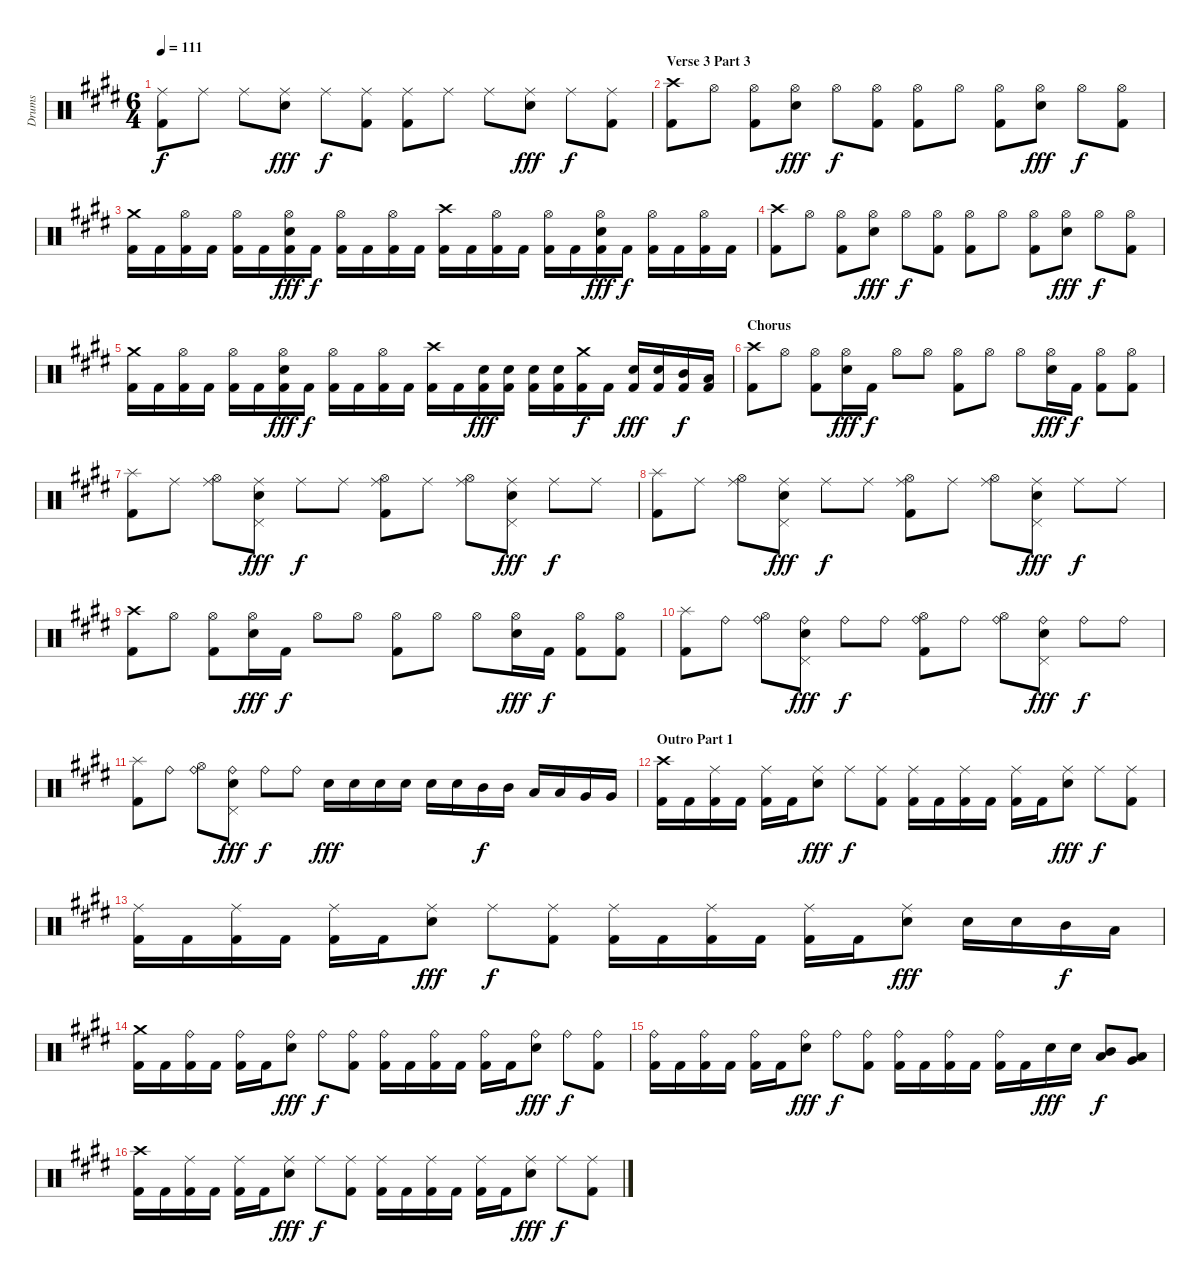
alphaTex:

\track ("Drums" "Drums") {instrument percussion}
\staff {score}
\articulation defaults
\ts (6 4)
\tempo 111
\clef neutral
\ks c#minor
("Ride (middle)" "Kick (hit) 2").8{dy f} "Ride (middle)".8 "Ride (middle)".8 ("Ride (middle)" "Snare (hit) 2").8{dy fff} "Ride (middle)".8{dy f} ("Ride (middle)" "Kick (hit) 2").8 ("Ride (middle)" "Kick (hit) 2").8 "Ride (middle)".8 "Ride (middle)".8 ("Ride (middle)" "Snare (hit) 2").8{dy fff} "Ride (middle)".8{dy f} ("Ride (middle)" "Kick (hit) 2").8 |
\section ("" "Verse 3 Part 3")
("Crash high (hit)" "Kick (hit) 2").8 "Hi-Hat (open)".8 ("Hi-Hat (open)" "Kick (hit) 2").8 ("Hi-Hat (open)" "Snare (hit) 2").8{dy fff} "Hi-Hat (open)".8{dy f} ("Hi-Hat (open)" "Kick (hit) 2").8 ("Hi-Hat (open)" "Kick (hit) 2").8 "Hi-Hat (open)".8 ("Hi-Hat (open)" "Kick (hit) 2").8 ("Hi-Hat (open)" "Snare (hit) 2").8{dy fff} "Hi-Hat (open)".8{dy f} ("Hi-Hat (open)" "Kick (hit) 2").8 |
("Crash medium (hit)" "Kick (hit) 2").16 "Kick (hit) 2".16 ("Hi-Hat (open)" "Kick (hit) 2").16 "Kick (hit) 2".16 ("Hi-Hat (open)" "Kick (hit) 2").16 "Kick (hit) 2".16 ("Hi-Hat (open)" "Snare (hit) 2" "Kick (hit) 2").16{dy fff} "Kick (hit) 2".16{dy f} ("Hi-Hat (open)" "Kick (hit) 2").16 "Kick (hit) 2".16 ("Hi-Hat (open)" "Kick (hit) 2").16 "Kick (hit) 2".16 ("Crash high (hit)" "Kick (hit) 2").16 "Kick (hit) 2".16 ("Hi-Hat (open)" "Kick (hit) 2").16 "Kick (hit) 2".16 ("Hi-Hat (open)" "Kick (hit) 2").16 "Kick (hit) 2".16 ("Hi-Hat (open)" "Snare (hit) 2" "Kick (hit) 2").16{dy fff} "Kick (hit) 2".16{dy f} ("Hi-Hat (open)" "Kick (hit) 2").16 "Kick (hit) 2".16 ("Hi-Hat (open)" "Kick (hit) 2").16 "Kick (hit) 2".16 |
("Crash high (hit)" "Kick (hit) 2").8 "Hi-Hat (open)".8 ("Hi-Hat (open)" "Kick (hit) 2").8 ("Hi-Hat (open)" "Snare (hit) 2").8{dy fff} "Hi-Hat (open)".8{dy f} ("Hi-Hat (open)" "Kick (hit) 2").8 ("Hi-Hat (open)" "Kick (hit) 2").8 "Hi-Hat (open)".8 ("Hi-Hat (open)" "Kick (hit) 2").8 ("Hi-Hat (open)" "Snare (hit) 2").8{dy fff} "Hi-Hat (open)".8{dy f} ("Hi-Hat (open)" "Kick (hit) 2").8 |
("Crash medium (hit)" "Kick (hit) 2").16 "Kick (hit) 2".16 ("Hi-Hat (open)" "Kick (hit) 2").16 "Kick (hit) 2".16 ("Hi-Hat (open)" "Kick (hit) 2").16 "Kick (hit) 2".16 ("Hi-Hat (open)" "Snare (hit) 2" "Kick (hit) 2").16{dy fff} "Kick (hit) 2".16{dy f} ("Hi-Hat (open)" "Kick (hit) 2").16 "Kick (hit) 2".16 ("Hi-Hat (open)" "Kick (hit) 2").16 "Kick (hit) 2".16 ("Crash high (hit)" "Kick (hit) 2").16 "Kick (hit) 2".16 ("Snare (hit) 2" "Kick (hit) 2").16{dy fff} ("Snare (hit) 2" "Kick (hit) 2").16 ("Snare (hit) 2" "Kick (hit) 2").16 ("Snare (hit) 2" "Kick (hit) 2").16 ("Crash medium (hit)" "Kick (hit) 2").16{dy f} "Kick (hit) 2".16 ("Snare (hit) 2" "Kick (hit) 2").16{dy fff} ("Snare (hit) 2" "Kick (hit) 2").16 ("Mid Tom (hit)" "Kick (hit) 2").16{dy f} ("Low Tom (hit)" "Kick (hit) 2").16 |
\section ("" "Chorus")
("Crash high (hit)" "Kick (hit) 2").8 "Hi-Hat (open)".8 ("Hi-Hat (open)" "Kick (hit) 2").8 ("Hi-Hat (open)" "Snare (hit) 2").16{dy fff} "Kick (hit) 2".16{dy f} "Hi-Hat (open)".8 "Hi-Hat (open)".8 ("Hi-Hat (open)" "Kick (hit) 2").8 "Hi-Hat (open)".8 "Hi-Hat (open)".8 ("Hi-Hat (open)" "Snare (hit) 2").16{dy fff} "Kick (hit) 2".16{dy f} ("Hi-Hat (open)" "Kick (hit) 2").8 ("Hi-Hat (open)" "Kick (hit) 2").8 |
("Splash (hit)" "Kick (hit) 2").8 "Ride (middle)".8 ("Hi-Hat (open)" "Ride (middle)").8 ("Pedal Hi-Hat (hit)" "Ride (middle)" "Snare (hit) 2").8{dy fff} "Ride (middle)".8{dy f} "Ride (middle)".8 ("Hi-Hat (open)" "Ride (middle)" "Kick (hit) 2").8 "Ride (middle)".8 ("Hi-Hat (open)" "Ride (middle)").8 ("Pedal Hi-Hat (hit)" "Ride (middle)" "Snare (hit) 2").8{dy fff} "Ride (middle)".8{dy f} "Ride (middle)".8 |
("Splash (hit)" "Kick (hit) 2").8 "Ride (middle)".8 ("Hi-Hat (open)" "Ride (middle)").8 ("Pedal Hi-Hat (hit)" "Ride (middle)" "Snare (hit) 2").8{dy fff} "Ride (middle)".8{dy f} "Ride (middle)".8 ("Hi-Hat (open)" "Ride (middle)" "Kick (hit) 2").8 "Ride (middle)".8 ("Hi-Hat (open)" "Ride (middle)").8 ("Pedal Hi-Hat (hit)" "Ride (middle)" "Snare (hit) 2").8{dy fff} "Ride (middle)".8{dy f} "Ride (middle)".8 |
("Crash high (hit)" "Kick (hit) 2").8 "Hi-Hat (open)".8 ("Hi-Hat (open)" "Kick (hit) 2").8 ("Hi-Hat (open)" "Snare (hit) 2").16{dy fff} "Kick (hit) 2".16{dy f} "Hi-Hat (open)".8 "Hi-Hat (open)".8 ("Hi-Hat (open)" "Kick (hit) 2").8 "Hi-Hat (open)".8 "Hi-Hat (open)".8 ("Hi-Hat (open)" "Snare (hit) 2").16{dy fff} "Kick (hit) 2".16{dy f} ("Hi-Hat (open)" "Kick (hit) 2").8 ("Hi-Hat (open)" "Kick (hit) 2").8 |
("Splash (hit)" "Kick (hit) 2").8 "Ride (bell)".8 ("Hi-Hat (open)" "Ride (bell)").8 ("Pedal Hi-Hat (hit)" "Ride (bell)" "Snare (hit) 2").8{dy fff} "Ride (bell)".8{dy f} "Ride (bell)".8 ("Hi-Hat (open)" "Ride (bell)" "Kick (hit) 2").8 "Ride (bell)".8 ("Hi-Hat (open)" "Ride (bell)").8 ("Pedal Hi-Hat (hit)" "Ride (bell)" "Snare (hit) 2").8{dy fff} "Ride (bell)".8{dy f} "Ride (bell)".8 |
("Splash (hit)" "Kick (hit) 2").8 "Ride (bell)".8 ("Hi-Hat (open)" "Ride (bell)").8 ("Pedal Hi-Hat (hit)" "Ride (bell)" "Snare (hit) 2").8{dy fff} "Ride (bell)".8{dy f} "Ride (bell)".8 "Snare (hit) 2".16{dy fff} "Snare (hit) 2".16 "Snare (hit) 2".16 "Snare (hit) 2".16 "Snare (hit) 2".16 "Snare (hit) 2".16 "Mid Tom (hit)".16{dy f} "Mid Tom (hit)".16 "Low Tom (hit)".16 "Low Tom (hit)".16 "Very Low Tom (hit)".16 "Very Low Tom (hit)".16 |
\section ("" "Outro Part 1")
("Crash high (hit)" "Kick (hit) 2").16 "Kick (hit) 2".16 ("Ride (middle)" "Kick (hit) 2").16 "Kick (hit) 2".16 ("Ride (middle)" "Kick (hit) 2").16 "Kick (hit) 2".16 ("Ride (middle)" "Snare (hit) 2").8{dy fff} "Ride (middle)".8{dy f} ("Ride (middle)" "Kick (hit) 2").8 ("Ride (middle)" "Kick (hit) 2").16 "Kick (hit) 2".16 ("Ride (middle)" "Kick (hit) 2").16 "Kick (hit) 2".16 ("Ride (middle)" "Kick (hit) 2").16 "Kick (hit) 2".16 ("Ride (middle)" "Snare (hit) 2").8{dy fff} "Ride (middle)".8{dy f} ("Ride (middle)" "Kick (hit) 2").8 |
("Ride (middle)" "Kick (hit) 2").16 "Kick (hit) 2".16 ("Ride (middle)" "Kick (hit) 2").16 "Kick (hit) 2".16 ("Ride (middle)" "Kick (hit) 2").16 "Kick (hit) 2".16 ("Ride (middle)" "Snare (hit) 2").8{dy fff} "Ride (middle)".8{dy f} ("Ride (middle)" "Kick (hit) 2").8 ("Ride (middle)" "Kick (hit) 2").16 "Kick (hit) 2".16 ("Ride (middle)" "Kick (hit) 2").16 "Kick (hit) 2".16 ("Ride (middle)" "Kick (hit) 2").16 "Kick (hit) 2".16 ("Ride (middle)" "Snare (hit) 2").8{dy fff} "Snare (hit) 2".16 "Snare (hit) 2".16 "Mid Tom (hit)".16{dy f} "Low Tom (hit)".16 |
("Crash medium (hit)" "Kick (hit) 2").16 "Kick (hit) 2".16 ("Ride (bell)" "Kick (hit) 2").16 "Kick (hit) 2".16 ("Ride (bell)" "Kick (hit) 2").16 "Kick (hit) 2".16 ("Ride (bell)" "Snare (hit) 2").8{dy fff} "Ride (bell)".8{dy f} ("Ride (bell)" "Kick (hit) 2").8 ("Ride (bell)" "Kick (hit) 2").16 "Kick (hit) 2".16 ("Ride (bell)" "Kick (hit) 2").16 "Kick (hit) 2".16 ("Ride (bell)" "Kick (hit) 2").16 "Kick (hit) 2".16 ("Ride (bell)" "Snare (hit) 2").8{dy fff} "Ride (bell)".8{dy f} ("Ride (bell)" "Kick (hit) 2").8 |
("Ride (bell)" "Kick (hit) 2").16 "Kick (hit) 2".16 ("Ride (bell)" "Kick (hit) 2").16 "Kick (hit) 2".16 ("Ride (bell)" "Kick (hit) 2").16 "Kick (hit) 2".16 ("Ride (bell)" "Snare (hit) 2").8{dy fff} "Ride (bell)".8{dy f} ("Ride (bell)" "Kick (hit) 2").8 ("Ride (bell)" "Kick (hit) 2").16 "Kick (hit) 2".16 ("Ride (bell)" "Kick (hit) 2").16 "Kick (hit) 2".16 ("Ride (bell)" "Kick (hit) 2").16 "Kick (hit) 2".16 "Snare (hit) 2".16{dy fff} "Snare (hit) 2".16 ("Mid Tom (hit)" "Low Tom (hit)").8{dy f} ("Low Tom (hit)" "Very Low Tom (hit)").8 |
("Crash high (hit)" "Kick (hit) 2").16 "Kick (hit) 2".16 ("Ride (middle)" "Kick (hit) 2").16 "Kick (hit) 2".16 ("Ride (middle)" "Kick (hit) 2").16 "Kick (hit) 2".16 ("Ride (middle)" "Snare (hit) 2").8{dy fff} "Ride (middle)".8{dy f} ("Ride (middle)" "Kick (hit) 2").8 ("Ride (middle)" "Kick (hit) 2").16 "Kick (hit) 2".16 ("Ride (middle)" "Kick (hit) 2").16 "Kick (hit) 2".16 ("Ride (middle)" "Kick (hit) 2").16 "Kick (hit) 2".16 ("Ride (middle)" "Snare (hit) 2").8{dy fff} "Ride (middle)".8{dy f} ("Ride (middle)" "Kick (hit) 2").8
